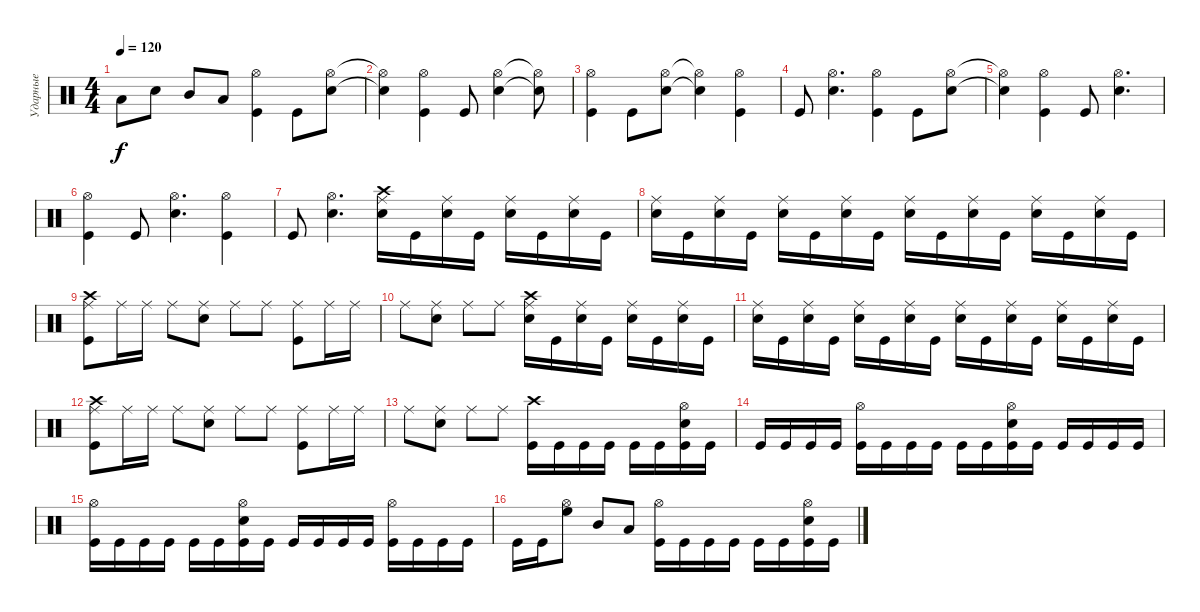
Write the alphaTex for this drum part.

\track ("Ударные" "Ударные") {instrument percussion}
\staff {score}
\articulation defaults
\ts (4 4)
\tempo 120
\clef neutral
\ks c "Low Tom (hit)".8{dy f} "Electric Snare (hit)".8 "Mid Tom (hit)".8 "Low Tom (hit)".8
("Kick (hit)" "Hi-Hat (open)").4 "Kick (hit)".8 ("Electric Snare (hit)" "Hi-Hat (open)").8 |
("Electric Snare (hit)"{t} "Hi-Hat (open)"{t}).4 ("Kick (hit)" "Hi-Hat (open)").4 "Kick (hit)".8 ("Electric Snare (hit)" "Hi-Hat (open)").4 ("Electric Snare (hit)"{t} "Hi-Hat (open)"{t}).8 |
("Kick (hit)" "Hi-Hat (open)").4 "Kick (hit)".8 ("Electric Snare (hit)" "Hi-Hat (open)").8 ("Electric Snare (hit)"{t} "Hi-Hat (open)"{t}).4 ("Kick (hit)" "Hi-Hat (open)").4 |
"Kick (hit)".8 ("Electric Snare (hit)" "Hi-Hat (open)").4{d} ("Kick (hit)" "Hi-Hat (open)").4 "Kick (hit)".8 ("Electric Snare (hit)" "Hi-Hat (open)").8 |
("Electric Snare (hit)"{t} "Hi-Hat (open)"{t}).4 ("Kick (hit)" "Hi-Hat (open)").4 "Kick (hit)".8 ("Electric Snare (hit)" "Hi-Hat (open)").4{d} |
("Kick (hit)" "Hi-Hat (open)").4 "Kick (hit)".8 ("Electric Snare (hit)" "Hi-Hat (open)").4{d} ("Kick (hit)" "Hi-Hat (open)").4 |
"Kick (hit)".8 ("Electric Snare (hit)" "Hi-Hat (open)").4{d} ("Electric Snare (hit)" "Ride (middle)" "Crash high (hit)").16 "Kick (hit)".16 ("Electric Snare (hit)" "Ride (middle)").16 "Kick (hit)".16 ("Electric Snare (hit)" "Ride (middle)").16 "Kick (hit)".16 ("Electric Snare (hit)" "Ride (middle)").16 "Kick (hit)".16 |
("Electric Snare (hit)" "Ride (middle)").16 "Kick (hit)".16 ("Electric Snare (hit)" "Ride (middle)").16 "Kick (hit)".16 ("Electric Snare (hit)" "Ride (middle)").16 "Kick (hit)".16 ("Electric Snare (hit)" "Ride (middle)").16 "Kick (hit)".16 ("Electric Snare (hit)" "Ride (middle)").16 "Kick (hit)".16 ("Electric Snare (hit)" "Ride (middle)").16 "Kick (hit)".16 ("Electric Snare (hit)" "Ride (middle)").16 "Kick (hit)".16 ("Electric Snare (hit)" "Ride (middle)").16 "Kick (hit)".16 |
("Kick (hit)" "Ride (middle)" "Crash high (hit)").8 "Ride (middle)".16 "Ride (middle)".16 "Ride (middle)".8 ("Electric Snare (hit)" "Ride (middle)").8 "Ride (middle)".8 "Ride (middle)".8 ("Kick (hit)" "Ride (middle)").8 "Ride (middle)".16 "Ride (middle)".16 |
"Ride (middle)".8 ("Electric Snare (hit)" "Ride (middle)").8 "Ride (middle)".8 "Ride (middle)".8 ("Electric Snare (hit)" "Ride (middle)" "Crash high (hit)").16 "Kick (hit)".16 ("Electric Snare (hit)" "Ride (middle)").16 "Kick (hit)".16 ("Electric Snare (hit)" "Ride (middle)").16 "Kick (hit)".16 ("Electric Snare (hit)" "Ride (middle)").16 "Kick (hit)".16 |
("Electric Snare (hit)" "Ride (middle)").16 "Kick (hit)".16 ("Electric Snare (hit)" "Ride (middle)").16 "Kick (hit)".16 ("Electric Snare (hit)" "Ride (middle)").16 "Kick (hit)".16 ("Electric Snare (hit)" "Ride (middle)").16 "Kick (hit)".16 ("Electric Snare (hit)" "Ride (middle)").16 "Kick (hit)".16 ("Electric Snare (hit)" "Ride (middle)").16 "Kick (hit)".16 ("Electric Snare (hit)" "Ride (middle)").16 "Kick (hit)".16 ("Electric Snare (hit)" "Ride (middle)").16 "Kick (hit)".16 |
("Kick (hit)" "Ride (middle)" "Crash high (hit)").8 "Ride (middle)".16 "Ride (middle)".16 "Ride (middle)".8 ("Electric Snare (hit)" "Ride (middle)").8 "Ride (middle)".8 "Ride (middle)".8 ("Kick (hit)" "Ride (middle)").8 "Ride (middle)".16 "Ride (middle)".16 |
"Ride (middle)".8 ("Electric Snare (hit)" "Ride (middle)").8 "Ride (middle)".8 "Ride (middle)".8 ("Kick (hit)" "Crash high (hit)").16 "Kick (hit)".16 "Kick (hit)".16 "Kick (hit)".16 "Kick (hit)".16 "Kick (hit)".16 ("Electric Snare (hit)" "Kick (hit)" "Hi-Hat (open)").16 "Kick (hit)".16 |
"Kick (hit)".16 "Kick (hit)".16 "Kick (hit)".16 "Kick (hit)".16 ("Kick (hit)" "Hi-Hat (open)").16 "Kick (hit)".16 "Kick (hit)".16 "Kick (hit)".16 "Kick (hit)".16 "Kick (hit)".16 ("Electric Snare (hit)" "Kick (hit)" "Hi-Hat (open)").16 "Kick (hit)".16 "Kick (hit)".16 "Kick (hit)".16 "Kick (hit)".16 "Kick (hit)".16 |
("Kick (hit)" "Hi-Hat (open)").16 "Kick (hit)".16 "Kick (hit)".16 "Kick (hit)".16 "Kick (hit)".16 "Kick (hit)".16 ("Electric Snare (hit)" "Kick (hit)" "Hi-Hat (open)").16 "Kick (hit)".16 "Kick (hit)".16 "Kick (hit)".16 "Kick (hit)".16 "Kick (hit)".16 ("Kick (hit)" "Hi-Hat (open)").16 "Kick (hit)".16 "Kick (hit)".16 "Kick (hit)".16 |
"Kick (hit)".16 "Kick (hit)".16 ("High Floor Tom (hit)" "Hi-Hat (open)").8 "Mid Tom (hit)".8 "Low Tom (hit)".8 ("Kick (hit)" "Hi-Hat (open)").16 "Kick (hit)".16 "Kick (hit)".16 "Kick (hit)".16 "Kick (hit)".16 "Kick (hit)".16 ("Electric Snare (hit)" "Kick (hit)" "Hi-Hat (open)").16 "Kick (hit)".16
